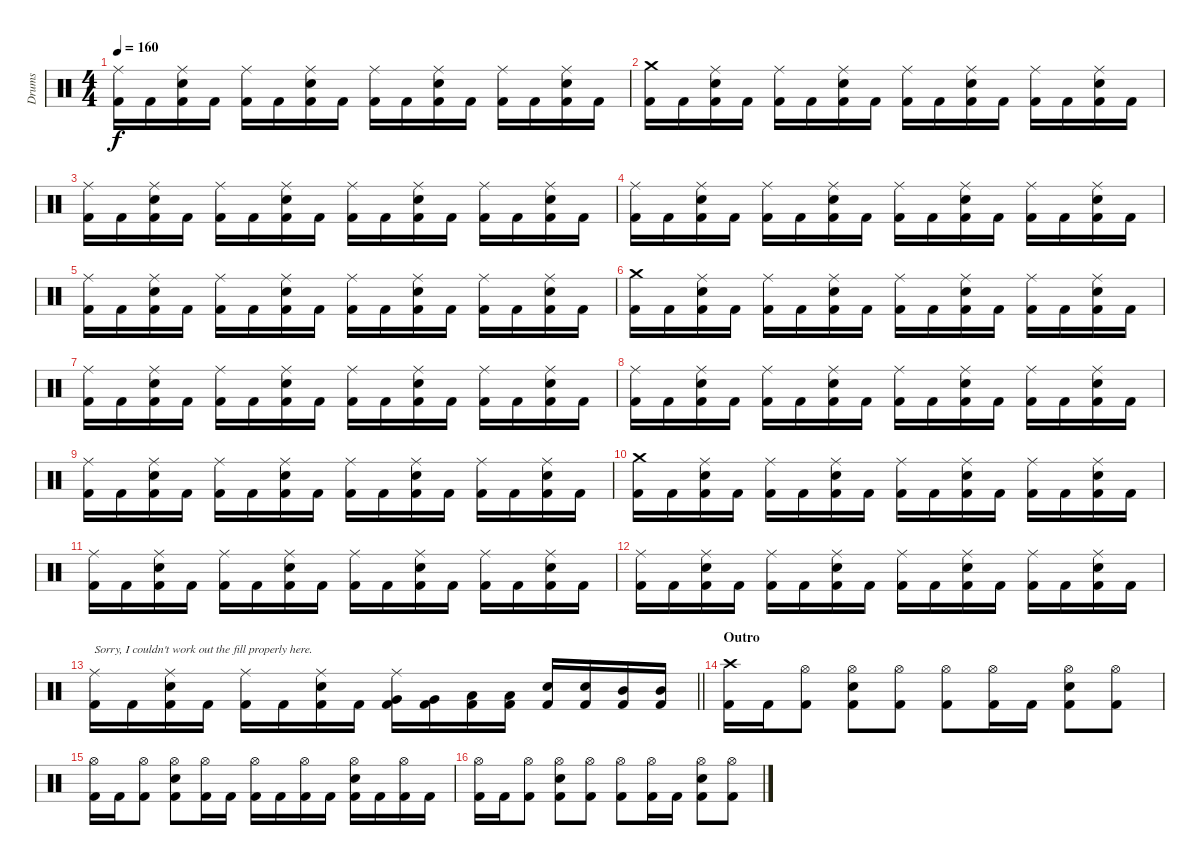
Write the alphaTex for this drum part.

\track ("Drums" "Drums") {instrument percussion}
\staff {score}
\articulation defaults
\ts (4 4)
\tempo 160
\clef neutral
\ks c
("Ride (middle)" "Kick (hit) 2").16{dy f} "Kick (hit) 2".16 ("Ride (middle)" "Snare (hit) 2" "Kick (hit) 2").16 "Kick (hit) 2".16 ("Ride (middle)" "Kick (hit) 2").16 "Kick (hit) 2".16 ("Ride (middle)" "Snare (hit) 2" "Kick (hit) 2").16 "Kick (hit) 2".16 ("Ride (middle)" "Kick (hit) 2").16 "Kick (hit) 2".16 ("Ride (middle)" "Snare (hit) 2" "Kick (hit) 2").16 "Kick (hit) 2".16 ("Ride (middle)" "Kick (hit) 2").16 "Kick (hit) 2".16 ("Ride (middle)" "Snare (hit) 2" "Kick (hit) 2").16 "Kick (hit) 2".16 |
("Crash medium (hit)" "Kick (hit) 2").16 "Kick (hit) 2".16 ("Ride (middle)" "Snare (hit) 2" "Kick (hit) 2").16 "Kick (hit) 2".16 ("Ride (middle)" "Kick (hit) 2").16 "Kick (hit) 2".16 ("Ride (middle)" "Snare (hit) 2" "Kick (hit) 2").16 "Kick (hit) 2".16 ("Ride (middle)" "Kick (hit) 2").16 "Kick (hit) 2".16 ("Ride (middle)" "Snare (hit) 2" "Kick (hit) 2").16 "Kick (hit) 2".16 ("Ride (middle)" "Kick (hit) 2").16 "Kick (hit) 2".16 ("Ride (middle)" "Snare (hit) 2" "Kick (hit) 2").16 "Kick (hit) 2".16 |
("Ride (middle)" "Kick (hit) 2").16 "Kick (hit) 2".16 ("Ride (middle)" "Snare (hit) 2" "Kick (hit) 2").16 "Kick (hit) 2".16 ("Ride (middle)" "Kick (hit) 2").16 "Kick (hit) 2".16 ("Ride (middle)" "Snare (hit) 2" "Kick (hit) 2").16 "Kick (hit) 2".16 ("Ride (middle)" "Kick (hit) 2").16 "Kick (hit) 2".16 ("Ride (middle)" "Snare (hit) 2" "Kick (hit) 2").16 "Kick (hit) 2".16 ("Ride (middle)" "Kick (hit) 2").16 "Kick (hit) 2".16 ("Ride (middle)" "Snare (hit) 2" "Kick (hit) 2").16 "Kick (hit) 2".16 |
("Ride (middle)" "Kick (hit) 2").16 "Kick (hit) 2".16 ("Ride (middle)" "Snare (hit) 2" "Kick (hit) 2").16 "Kick (hit) 2".16 ("Ride (middle)" "Kick (hit) 2").16 "Kick (hit) 2".16 ("Ride (middle)" "Snare (hit) 2" "Kick (hit) 2").16 "Kick (hit) 2".16 ("Ride (middle)" "Kick (hit) 2").16 "Kick (hit) 2".16 ("Ride (middle)" "Snare (hit) 2" "Kick (hit) 2").16 "Kick (hit) 2".16 ("Ride (middle)" "Kick (hit) 2").16 "Kick (hit) 2".16 ("Ride (middle)" "Snare (hit) 2" "Kick (hit) 2").16 "Kick (hit) 2".16 |
("Ride (middle)" "Kick (hit) 2").16 "Kick (hit) 2".16 ("Ride (middle)" "Snare (hit) 2" "Kick (hit) 2").16 "Kick (hit) 2".16 ("Ride (middle)" "Kick (hit) 2").16 "Kick (hit) 2".16 ("Ride (middle)" "Snare (hit) 2" "Kick (hit) 2").16 "Kick (hit) 2".16 ("Ride (middle)" "Kick (hit) 2").16 "Kick (hit) 2".16 ("Ride (middle)" "Snare (hit) 2" "Kick (hit) 2").16 "Kick (hit) 2".16 ("Ride (middle)" "Kick (hit) 2").16 "Kick (hit) 2".16 ("Ride (middle)" "Snare (hit) 2" "Kick (hit) 2").16 "Kick (hit) 2".16 |
("Crash medium (hit)" "Kick (hit) 2").16 "Kick (hit) 2".16 ("Ride (middle)" "Snare (hit) 2" "Kick (hit) 2").16 "Kick (hit) 2".16 ("Ride (middle)" "Kick (hit) 2").16 "Kick (hit) 2".16 ("Ride (middle)" "Snare (hit) 2" "Kick (hit) 2").16 "Kick (hit) 2".16 ("Ride (middle)" "Kick (hit) 2").16 "Kick (hit) 2".16 ("Ride (middle)" "Snare (hit) 2" "Kick (hit) 2").16 "Kick (hit) 2".16 ("Ride (middle)" "Kick (hit) 2").16 "Kick (hit) 2".16 ("Ride (middle)" "Snare (hit) 2" "Kick (hit) 2").16 "Kick (hit) 2".16 |
("Ride (middle)" "Kick (hit) 2").16 "Kick (hit) 2".16 ("Ride (middle)" "Snare (hit) 2" "Kick (hit) 2").16 "Kick (hit) 2".16 ("Ride (middle)" "Kick (hit) 2").16 "Kick (hit) 2".16 ("Ride (middle)" "Snare (hit) 2" "Kick (hit) 2").16 "Kick (hit) 2".16 ("Ride (middle)" "Kick (hit) 2").16 "Kick (hit) 2".16 ("Ride (middle)" "Snare (hit) 2" "Kick (hit) 2").16 "Kick (hit) 2".16 ("Ride (middle)" "Kick (hit) 2").16 "Kick (hit) 2".16 ("Ride (middle)" "Snare (hit) 2" "Kick (hit) 2").16 "Kick (hit) 2".16 |
("Ride (middle)" "Kick (hit) 2").16 "Kick (hit) 2".16 ("Ride (middle)" "Snare (hit) 2" "Kick (hit) 2").16 "Kick (hit) 2".16 ("Ride (middle)" "Kick (hit) 2").16 "Kick (hit) 2".16 ("Ride (middle)" "Snare (hit) 2" "Kick (hit) 2").16 "Kick (hit) 2".16 ("Ride (middle)" "Kick (hit) 2").16 "Kick (hit) 2".16 ("Ride (middle)" "Snare (hit) 2" "Kick (hit) 2").16 "Kick (hit) 2".16 ("Ride (middle)" "Kick (hit) 2").16 "Kick (hit) 2".16 ("Ride (middle)" "Snare (hit) 2" "Kick (hit) 2").16 "Kick (hit) 2".16 |
("Ride (middle)" "Kick (hit) 2").16 "Kick (hit) 2".16 ("Ride (middle)" "Snare (hit) 2" "Kick (hit) 2").16 "Kick (hit) 2".16 ("Ride (middle)" "Kick (hit) 2").16 "Kick (hit) 2".16 ("Ride (middle)" "Snare (hit) 2" "Kick (hit) 2").16 "Kick (hit) 2".16 ("Ride (middle)" "Kick (hit) 2").16 "Kick (hit) 2".16 ("Ride (middle)" "Snare (hit) 2" "Kick (hit) 2").16 "Kick (hit) 2".16 ("Ride (middle)" "Kick (hit) 2").16 "Kick (hit) 2".16 ("Ride (middle)" "Snare (hit) 2" "Kick (hit) 2").16 "Kick (hit) 2".16 |
("Crash medium (hit)" "Kick (hit) 2").16 "Kick (hit) 2".16 ("Ride (middle)" "Snare (hit) 2" "Kick (hit) 2").16 "Kick (hit) 2".16 ("Ride (middle)" "Kick (hit) 2").16 "Kick (hit) 2".16 ("Ride (middle)" "Snare (hit) 2" "Kick (hit) 2").16 "Kick (hit) 2".16 ("Ride (middle)" "Kick (hit) 2").16 "Kick (hit) 2".16 ("Ride (middle)" "Snare (hit) 2" "Kick (hit) 2").16 "Kick (hit) 2".16 ("Ride (middle)" "Kick (hit) 2").16 "Kick (hit) 2".16 ("Ride (middle)" "Snare (hit) 2" "Kick (hit) 2").16 "Kick (hit) 2".16 |
("Ride (middle)" "Kick (hit) 2").16 "Kick (hit) 2".16 ("Ride (middle)" "Snare (hit) 2" "Kick (hit) 2").16 "Kick (hit) 2".16 ("Ride (middle)" "Kick (hit) 2").16 "Kick (hit) 2".16 ("Ride (middle)" "Snare (hit) 2" "Kick (hit) 2").16 "Kick (hit) 2".16 ("Ride (middle)" "Kick (hit) 2").16 "Kick (hit) 2".16 ("Ride (middle)" "Snare (hit) 2" "Kick (hit) 2").16 "Kick (hit) 2".16 ("Ride (middle)" "Kick (hit) 2").16 "Kick (hit) 2".16 ("Ride (middle)" "Snare (hit) 2" "Kick (hit) 2").16 "Kick (hit) 2".16 |
("Ride (middle)" "Kick (hit) 2").16 "Kick (hit) 2".16 ("Ride (middle)" "Snare (hit) 2" "Kick (hit) 2").16 "Kick (hit) 2".16 ("Ride (middle)" "Kick (hit) 2").16 "Kick (hit) 2".16 ("Ride (middle)" "Snare (hit) 2" "Kick (hit) 2").16 "Kick (hit) 2".16 ("Ride (middle)" "Kick (hit) 2").16 "Kick (hit) 2".16 ("Ride (middle)" "Snare (hit) 2" "Kick (hit) 2").16 "Kick (hit) 2".16 ("Ride (middle)" "Kick (hit) 2").16 "Kick (hit) 2".16 ("Ride (middle)" "Snare (hit) 2" "Kick (hit) 2").16 "Kick (hit) 2".16 |
\barLineRight lightlight
("Ride (middle)" "Kick (hit) 2").16{txt "Sorry, I couldn't work out the fill properly here."} "Kick (hit) 2".16 ("Ride (middle)" "Snare (hit) 2" "Kick (hit) 2").16 "Kick (hit) 2".16 ("Ride (middle)" "Kick (hit) 2").16 "Kick (hit) 2".16 ("Ride (middle)" "Snare (hit) 2" "Kick (hit) 2").16 "Kick (hit) 2".16 ("Ride (middle)" "Very Low Tom (hit)" "Kick (hit) 2").16 ("Very Low Tom (hit)" "Kick (hit) 2").16 ("Low Tom (hit)" "Kick (hit) 2").16 ("Low Tom (hit)" "Kick (hit) 2").16 ("Snare (hit) 2" "Kick (hit) 2").16 ("Snare (hit) 2" "Kick (hit) 2").16 ("Mid Tom (hit)" "Kick (hit) 2").16 ("Mid Tom (hit)" "Kick (hit) 2").16 |
\section ("" "Outro")
("Crash high (hit)" "Kick (hit) 2").16 "Kick (hit) 2".16 ("Hi-Hat (open)" "Kick (hit) 2").8 ("Hi-Hat (open)" "Snare (hit) 2" "Kick (hit) 2").8 ("Hi-Hat (open)" "Kick (hit) 2").8 ("Hi-Hat (open)" "Kick (hit) 2").8 ("Hi-Hat (open)" "Kick (hit) 2").16 "Kick (hit) 2".16 ("Hi-Hat (open)" "Snare (hit) 2" "Kick (hit) 2").8 ("Hi-Hat (open)" "Kick (hit) 2").8 |
("Hi-Hat (open)" "Kick (hit) 2").16 "Kick (hit) 2".16 ("Hi-Hat (open)" "Kick (hit) 2").8 ("Hi-Hat (open)" "Snare (hit) 2" "Kick (hit) 2").8 ("Hi-Hat (open)" "Kick (hit) 2").16 "Kick (hit) 2".16 ("Hi-Hat (open)" "Kick (hit) 2").16 "Kick (hit) 2".16 ("Hi-Hat (open)" "Kick (hit) 2").16 "Kick (hit) 2".16 ("Hi-Hat (open)" "Snare (hit) 2" "Kick (hit) 2").16 "Kick (hit) 2".16 ("Hi-Hat (open)" "Kick (hit) 2").16 "Kick (hit) 2".16 |
("Hi-Hat (open)" "Kick (hit) 2").16 "Kick (hit) 2".16 ("Hi-Hat (open)" "Kick (hit) 2").8 ("Hi-Hat (open)" "Snare (hit) 2" "Kick (hit) 2").8 ("Hi-Hat (open)" "Kick (hit) 2").8 ("Hi-Hat (open)" "Kick (hit) 2").8 ("Hi-Hat (open)" "Kick (hit) 2").16 "Kick (hit) 2".16 ("Hi-Hat (open)" "Snare (hit) 2" "Kick (hit) 2").8 ("Hi-Hat (open)" "Kick (hit) 2").8
